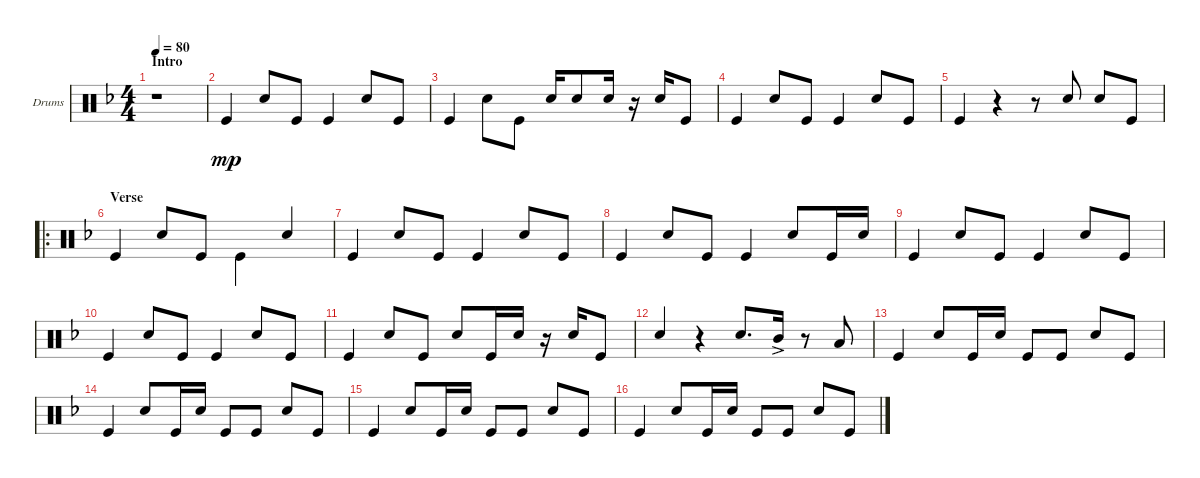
\defaultSystemsLayout 4
\bracketExtendMode groupsimilarinstruments
\firstSystemTrackNameOrientation horizontal
\otherSystemsTrackNameOrientation horizontal
\track ("Drumkit" "Drums") {instrument percussion}
\staff {score}
\articulation defaults
\ts (4 4)
\section ("" "Intro")
\tempo 80
\clef neutral
\scale
0.502222
\ks f
r.1{dy mp} |
\scale
0.248889 "Kick (hit)".4 "Snare (hit) 2".8 "Kick (hit)".8 "Kick (hit)".4 "Snare (hit) 2".8 "Kick (hit)".8 |
\scale
0.248889 "Kick (hit)".4 "Snare (hit) 2".8 "Kick (hit)".8 "Snare (hit) 2".16{beam invert} "Snare (hit) 2".8 "Snare (hit) 2".16 r.16 "Snare (hit) 2".16 "Kick (hit)".8 |
\scale
0.311111 "Kick (hit)".4 "Snare (hit) 2".8 "Kick (hit)".8 "Kick (hit)".4 "Snare (hit) 2".8 "Kick (hit)".8 |
\scale
0.311111 "Kick (hit)".4 r.4 r.8 "Snare (hit) 2".8{beam invert} "Snare (hit) 2".8 "Kick (hit)".8 |
\ro
\section ("" "Verse")
\scale
0.377778 "Kick (hit)".4 "Snare (hit) 2".8 "Kick (hit)".8 "Kick (hit)".4 "Snare (hit) 2".4{beam invert} |
\scale
0.333333 "Kick (hit)".4 "Snare (hit) 2".8 "Kick (hit)".8 "Kick (hit)".4 "Snare (hit) 2".8 "Kick (hit)".8 |
\scale
0.333333 "Kick (hit)".4 "Snare (hit) 2".8 "Kick (hit)".8 "Kick (hit)".4 "Snare (hit) 2".8 "Kick (hit)".16 "Snare (hit) 2".16 |
\scale
0.333333 "Kick (hit)".4 "Snare (hit) 2".8 "Kick (hit)".8 "Kick (hit)".4 "Snare (hit) 2".8 "Kick (hit)".8 |
\scale
0.333333 "Kick (hit)".4 "Snare (hit) 2".8 "Kick (hit)".8 "Kick (hit)".4 "Snare (hit) 2".8 "Kick (hit)".8 |
\scale
0.333333 "Kick (hit)".4 "Snare (hit) 2".8 "Kick (hit)".8 "Snare (hit) 2".8 "Kick (hit)".16 "Snare (hit) 2".16 r.16 "Snare (hit) 2".16 "Kick (hit)".8 |
\scale
0.333333 "Snare (hit) 2".4{beam invert} r.4 "Snare (hit) 2".8{d beam invert} "Mid Tom (hit)"{ac}.16 r.8 "Low Tom (hit)".8 |
\scale
0.333333 "Kick (hit)".4 "Snare (hit) 2".8 "Kick (hit)".16 "Snare (hit) 2".16 "Kick (hit)".8 "Kick (hit)".8 "Snare (hit) 2".8 "Kick (hit)".8 |
\scale
0.333333 "Kick (hit)".4 "Snare (hit) 2".8 "Kick (hit)".16 "Snare (hit) 2".16 "Kick (hit)".8 "Kick (hit)".8 "Snare (hit) 2".8 "Kick (hit)".8 |
\scale
0.333333 "Kick (hit)".4 "Snare (hit) 2".8 "Kick (hit)".16 "Snare (hit) 2".16 "Kick (hit)".8 "Kick (hit)".8 "Snare (hit) 2".8 "Kick (hit)".8 |
\scale
0.333333 "Kick (hit)".4 "Snare (hit) 2".8 "Kick (hit)".16 "Snare (hit) 2".16 "Kick (hit)".8 "Kick (hit)".8 "Snare (hit) 2".8 "Kick (hit)".8
